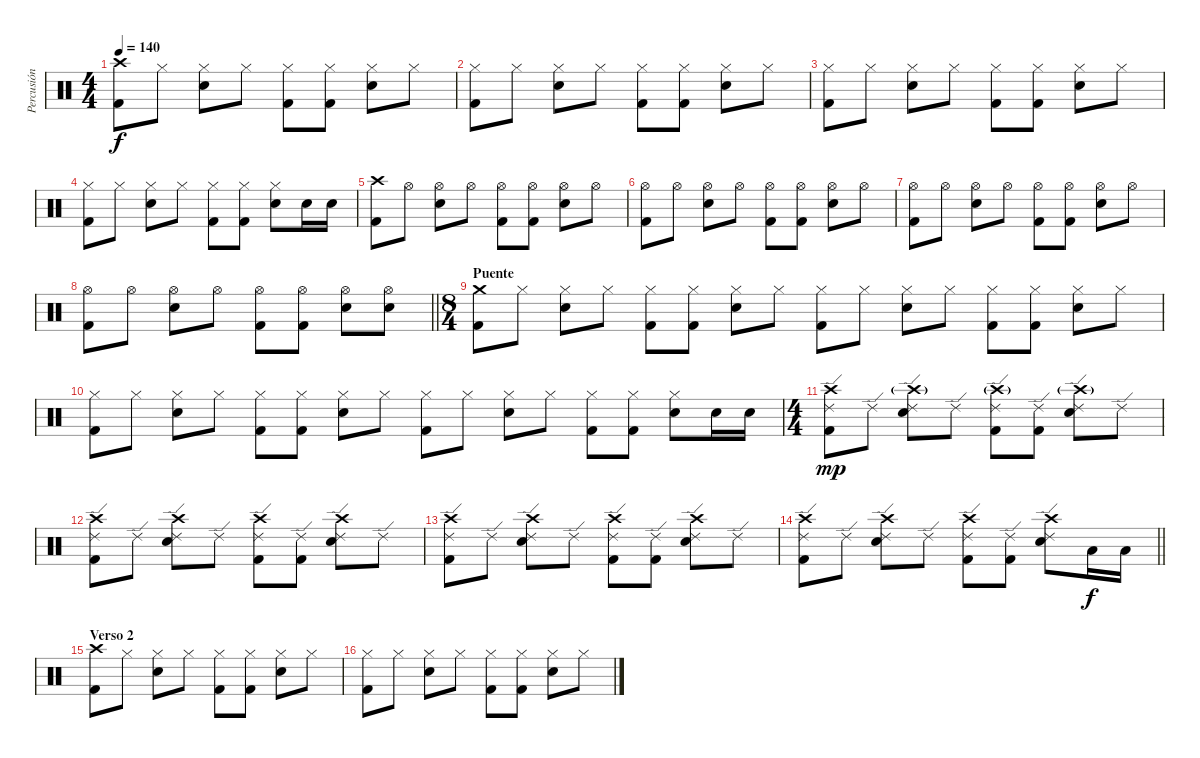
\track ("Percusión" "Percusión") {instrument percussion}
\staff {score}
\articulation defaults
\ts (4 4)
\tempo 140
\clef neutral
\ks c
("Crash high (hit)" "Kick (hit) 2").8{dy f} "Hi-Hat (closed)".8 ("Hi-Hat (closed)" "Electric Snare (hit)").8 "Hi-Hat (closed)".8 ("Hi-Hat (closed)" "Kick (hit) 2").8 ("Hi-Hat (closed)" "Kick (hit) 2").8 ("Hi-Hat (closed)" "Electric Snare (hit)").8 "Hi-Hat (closed)".8 |
("Hi-Hat (closed)" "Kick (hit) 2").8 "Hi-Hat (closed)".8 ("Hi-Hat (closed)" "Electric Snare (hit)").8 "Hi-Hat (closed)".8 ("Hi-Hat (closed)" "Kick (hit) 2").8 ("Hi-Hat (closed)" "Kick (hit) 2").8 ("Hi-Hat (closed)" "Electric Snare (hit)").8 "Hi-Hat (closed)".8 |
("Hi-Hat (closed)" "Kick (hit) 2").8 "Hi-Hat (closed)".8 ("Hi-Hat (closed)" "Electric Snare (hit)").8 "Hi-Hat (closed)".8 ("Hi-Hat (closed)" "Kick (hit) 2").8 ("Hi-Hat (closed)" "Kick (hit) 2").8 ("Hi-Hat (closed)" "Electric Snare (hit)").8 "Hi-Hat (closed)".8 |
("Hi-Hat (closed)" "Kick (hit) 2").8 "Hi-Hat (closed)".8 ("Hi-Hat (closed)" "Electric Snare (hit)").8 "Hi-Hat (closed)".8 ("Hi-Hat (closed)" "Kick (hit) 2").8 ("Hi-Hat (closed)" "Kick (hit) 2").8 ("Hi-Hat (closed)" "Electric Snare (hit)").8 "Electric Snare (hit)".16 "Electric Snare (hit)".16 |
("Crash high (hit)" "Kick (hit) 2").8 "Hi-Hat (open)".8 ("Hi-Hat (open)" "Electric Snare (hit)").8 "Hi-Hat (open)".8 ("Hi-Hat (open)" "Kick (hit) 2").8 ("Hi-Hat (open)" "Kick (hit) 2").8 ("Hi-Hat (open)" "Electric Snare (hit)").8 "Hi-Hat (open)".8 |
("Hi-Hat (open)" "Kick (hit) 2").8 "Hi-Hat (open)".8 ("Hi-Hat (open)" "Electric Snare (hit)").8 "Hi-Hat (open)".8 ("Hi-Hat (open)" "Kick (hit) 2").8 ("Hi-Hat (open)" "Kick (hit) 2").8 ("Hi-Hat (open)" "Electric Snare (hit)").8 "Hi-Hat (open)".8 |
("Hi-Hat (open)" "Kick (hit) 2").8 "Hi-Hat (open)".8 ("Hi-Hat (open)" "Electric Snare (hit)").8 "Hi-Hat (open)".8 ("Hi-Hat (open)" "Kick (hit) 2").8 ("Hi-Hat (open)" "Kick (hit) 2").8 ("Hi-Hat (open)" "Electric Snare (hit)").8 "Hi-Hat (open)".8 |
\barLineRight lightlight
("Hi-Hat (open)" "Kick (hit) 2").8 "Hi-Hat (open)".8 ("Hi-Hat (open)" "Electric Snare (hit)").8 "Hi-Hat (open)".8 ("Hi-Hat (open)" "Kick (hit) 2").8 ("Hi-Hat (open)" "Kick (hit) 2").8 ("Hi-Hat (open)" "Electric Snare (hit)").8 ("Hi-Hat (open)" "Electric Snare (hit)").8 |
\ts (8 4)
\section ("" "Puente")
("Crash medium (hit)" "Kick (hit) 2").8 "Hi-Hat (closed)".8 ("Hi-Hat (closed)" "Electric Snare (hit)").8 "Hi-Hat (closed)".8 ("Hi-Hat (closed)" "Kick (hit) 2").8 ("Hi-Hat (closed)" "Kick (hit) 2").8 ("Hi-Hat (closed)" "Electric Snare (hit)").8 "Hi-Hat (closed)".8 ("Hi-Hat (closed)" "Kick (hit) 2").8 "Hi-Hat (closed)".8 ("Hi-Hat (closed)" "Electric Snare (hit)").8 "Hi-Hat (closed)".8 ("Hi-Hat (closed)" "Kick (hit) 2").8 ("Hi-Hat (closed)" "Kick (hit) 2").8 ("Hi-Hat (closed)" "Electric Snare (hit)").8 "Hi-Hat (closed)".8 |
("Hi-Hat (closed)" "Kick (hit) 2").8 "Hi-Hat (closed)".8 ("Hi-Hat (closed)" "Electric Snare (hit)").8 "Hi-Hat (closed)".8 ("Hi-Hat (closed)" "Kick (hit) 2").8 ("Hi-Hat (closed)" "Kick (hit) 2").8 ("Hi-Hat (closed)" "Electric Snare (hit)").8 "Hi-Hat (closed)".8 ("Hi-Hat (closed)" "Kick (hit) 2").8 "Hi-Hat (closed)".8 ("Hi-Hat (closed)" "Electric Snare (hit)").8 "Hi-Hat (closed)".8 ("Hi-Hat (closed)" "Kick (hit) 2").8 ("Hi-Hat (closed)" "Kick (hit) 2").8 ("Hi-Hat (closed)" "Electric Snare (hit)").8 "Electric Snare (hit)".16 "Electric Snare (hit)".16 |
\ts (4 4)
("Crash high (hit)" "Ride (edge) 2" "Kick (hit) 2").8{dy mp} "Ride (edge) 2".8 ("Crash high (hit)"{g} "Ride (edge) 2" "Electric Snare (hit)").8 "Ride (edge) 2".8 ("Crash high (hit)"{g} "Ride (edge) 2" "Kick (hit) 2").8 ("Ride (edge) 2" "Kick (hit) 2").8 ("Crash high (hit)"{g} "Ride (edge) 2" "Electric Snare (hit)").8 "Ride (edge) 2".8 |
("Crash high (hit)" "Ride (edge) 2" "Kick (hit) 2").8 "Ride (edge) 2".8 ("Crash high (hit)" "Ride (edge) 2" "Electric Snare (hit)").8 "Ride (edge) 2".8 ("Crash high (hit)" "Ride (edge) 2" "Kick (hit) 2").8 ("Ride (edge) 2" "Kick (hit) 2").8 ("Crash high (hit)" "Ride (edge) 2" "Electric Snare (hit)").8 "Ride (edge) 2".8 |
("Crash high (hit)" "Ride (edge) 2" "Kick (hit) 2").8 "Ride (edge) 2".8 ("Crash high (hit)" "Ride (edge) 2" "Electric Snare (hit)").8 "Ride (edge) 2".8 ("Crash high (hit)" "Ride (edge) 2" "Kick (hit) 2").8 ("Ride (edge) 2" "Kick (hit) 2").8 ("Crash high (hit)" "Ride (edge) 2" "Electric Snare (hit)").8 "Ride (edge) 2".8 |
\barLineRight lightlight
("Crash high (hit)" "Ride (edge) 2" "Kick (hit) 2").8 "Ride (edge) 2".8 ("Crash high (hit)" "Ride (edge) 2" "Electric Snare (hit)").8 "Ride (edge) 2".8 ("Crash high (hit)" "Ride (edge) 2" "Kick (hit) 2").8 ("Ride (edge) 2" "Kick (hit) 2").8 ("Crash high (hit)" "Ride (edge) 2" "Electric Snare (hit)").8 "Low Tom (hit)".16{dy f} "Low Tom (hit)".16 |
\section ("" "Verso 2")
("Crash high (hit)" "Kick (hit) 2").8 "Hi-Hat (closed)".8 ("Hi-Hat (closed)" "Electric Snare (hit)").8 "Hi-Hat (closed)".8 ("Hi-Hat (closed)" "Kick (hit) 2").8 ("Hi-Hat (closed)" "Kick (hit) 2").8 ("Hi-Hat (closed)" "Electric Snare (hit)").8 "Hi-Hat (closed)".8 |
("Hi-Hat (closed)" "Kick (hit) 2").8 "Hi-Hat (closed)".8 ("Hi-Hat (closed)" "Electric Snare (hit)").8 "Hi-Hat (closed)".8 ("Hi-Hat (closed)" "Kick (hit) 2").8 ("Hi-Hat (closed)" "Kick (hit) 2").8 ("Hi-Hat (closed)" "Electric Snare (hit)").8 "Hi-Hat (closed)".8
